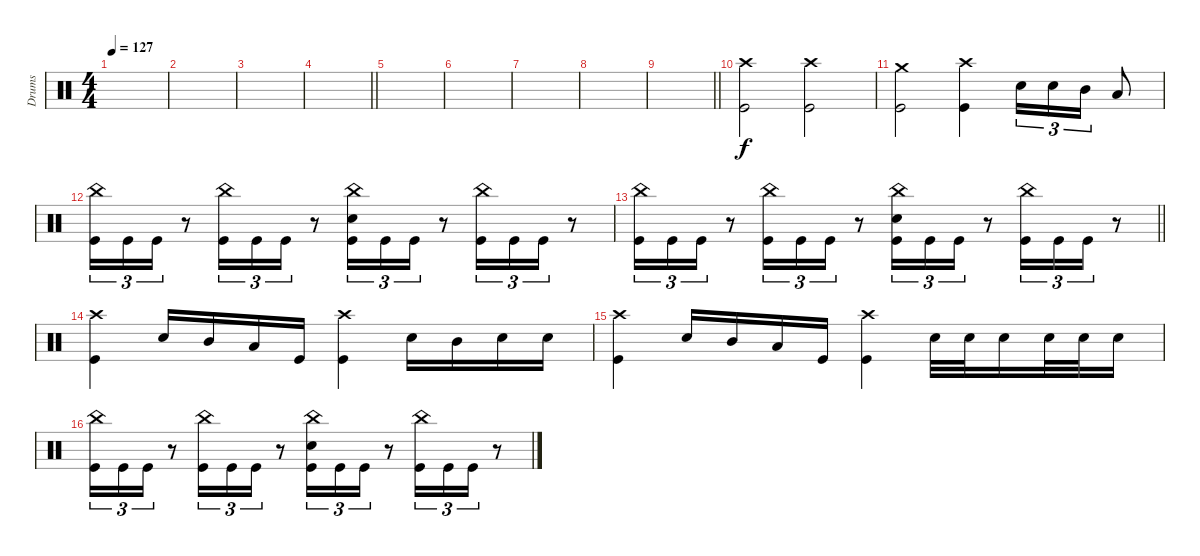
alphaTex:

\track ("Drums" "Drums") {instrument percussion}
\staff
\articulation defaults
\ts (4 4)
\tempo 127
\clef neutral
\ks c
|
|
|
\barLineRight lightlight
|
|
|
|
|
\barLineRight lightlight
|
("Crash high (hit)" "Kick (hit)").2 ("Crash high (hit)" "Kick (hit)").2 |
("Crash medium (hit)" "Kick (hit)").2 ("Crash high (hit)" "Kick (hit)").4 "Electric Snare (hit)".16{tu (3 2)} "Electric Snare (hit)".16{tu (3 2)} "Mid Tom (hit)".16{tu (3 2)} "Low Tom (hit)".8 |
("China (hit)" "Kick (hit)").16{tu (3 2)} "Kick (hit)".16{tu (3 2)} "Kick (hit)".16{tu (3 2)} r.8 ("China (hit)" "Kick (hit)").16{tu (3 2)} "Kick (hit)".16{tu (3 2)} "Kick (hit)".16{tu (3 2)} r.8 ("China (hit)" "Electric Snare (hit)" "Kick (hit)").16{tu (3 2)} "Kick (hit)".16{tu (3 2)} "Kick (hit)".16{tu (3 2)} r.8 ("China (hit)" "Kick (hit)").16{tu (3 2)} "Kick (hit)".16{tu (3 2)} "Kick (hit)".16{tu (3 2)} r.8 |
\barLineRight lightlight
("China (hit)" "Kick (hit)").16{tu (3 2)} "Kick (hit)".16{tu (3 2)} "Kick (hit)".16{tu (3 2)} r.8 ("China (hit)" "Kick (hit)").16{tu (3 2)} "Kick (hit)".16{tu (3 2)} "Kick (hit)".16{tu (3 2)} r.8 ("China (hit)" "Electric Snare (hit)" "Kick (hit)").16{tu (3 2)} "Kick (hit)".16{tu (3 2)} "Kick (hit)".16{tu (3 2)} r.8 ("China (hit)" "Kick (hit)").16{tu (3 2)} "Kick (hit)".16{tu (3 2)} "Kick (hit)".16{tu (3 2)} r.8 |
("Crash high (hit)" "Kick (hit)").4 "Electric Snare (hit)".16 "Mid Tom (hit)".16 "Low Tom (hit)".16 "Kick (hit)".16 ("Crash high (hit)" "Kick (hit)").4 "Electric Snare (hit)".16 "Mid Tom (hit)".16 "Electric Snare (hit)".16 "Electric Snare (hit)".16 |
("Crash high (hit)" "Kick (hit)").4 "Electric Snare (hit)".16 "Mid Tom (hit)".16 "Low Tom (hit)".16 "Kick (hit)".16 ("Crash high (hit)" "Kick (hit)").4 "Electric Snare (hit)".32 "Electric Snare (hit)".32 "Electric Snare (hit)".16 "Electric Snare (hit)".32 "Electric Snare (hit)".32 "Electric Snare (hit)".16 |
("China (hit)" "Kick (hit)").16{tu (3 2)} "Kick (hit)".16{tu (3 2)} "Kick (hit)".16{tu (3 2)} r.8 ("China (hit)" "Kick (hit)").16{tu (3 2)} "Kick (hit)".16{tu (3 2)} "Kick (hit)".16{tu (3 2)} r.8 ("China (hit)" "Electric Snare (hit)" "Kick (hit)").16{tu (3 2)} "Kick (hit)".16{tu (3 2)} "Kick (hit)".16{tu (3 2)} r.8 ("China (hit)" "Kick (hit)").16{tu (3 2)} "Kick (hit)".16{tu (3 2)} "Kick (hit)".16{tu (3 2)} r.8
